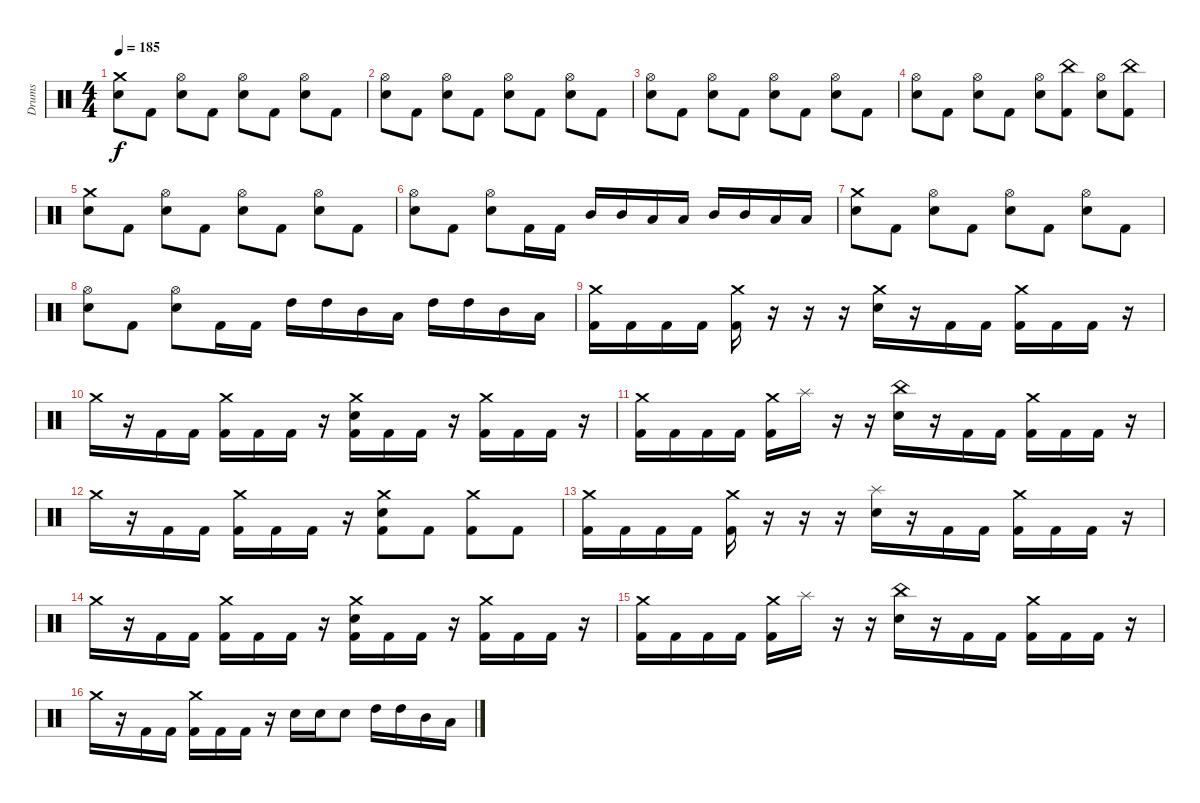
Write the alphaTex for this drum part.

\track ("Drums" "Drums") {instrument percussion}
\staff {score}
\articulation defaults
\ts (4 4)
\tempo 185
\clef neutral
\ks c
("Crash medium (hit)" "Snare (hit) 2").8{dy f} "Kick (hit) 2".8 ("Snare (hit) 2" "Hi-Hat (open)").8 "Kick (hit) 2".8 ("Snare (hit) 2" "Hi-Hat (open)").8 "Kick (hit) 2".8 ("Snare (hit) 2" "Hi-Hat (open)").8 "Kick (hit) 2".8 |
("Snare (hit) 2" "Hi-Hat (open)").8 "Kick (hit) 2".8 ("Snare (hit) 2" "Hi-Hat (open)").8 "Kick (hit) 2".8 ("Snare (hit) 2" "Hi-Hat (open)").8 "Kick (hit) 2".8 ("Snare (hit) 2" "Hi-Hat (open)").8 "Kick (hit) 2".8 |
("Snare (hit) 2" "Hi-Hat (open)").8 "Kick (hit) 2".8 ("Snare (hit) 2" "Hi-Hat (open)").8 "Kick (hit) 2".8 ("Snare (hit) 2" "Hi-Hat (open)").8 "Kick (hit) 2".8 ("Snare (hit) 2" "Hi-Hat (open)").8 "Kick (hit) 2".8 |
("Snare (hit) 2" "Hi-Hat (open)").8 "Kick (hit) 2".8 ("Snare (hit) 2" "Hi-Hat (open)").8 "Kick (hit) 2".8 ("Snare (hit) 2" "Hi-Hat (open)").8 ("China (hit)" "Kick (hit) 2").8 ("Snare (hit) 2" "Hi-Hat (open)").8 ("China (hit)" "Kick (hit) 2").8 |
("Crash medium (hit)" "Snare (hit) 2").8 "Kick (hit) 2".8 ("Snare (hit) 2" "Hi-Hat (open)").8 "Kick (hit) 2".8 ("Snare (hit) 2" "Hi-Hat (open)").8 "Kick (hit) 2".8 ("Snare (hit) 2" "Hi-Hat (open)").8 "Kick (hit) 2".8 |
("Snare (hit) 2" "Hi-Hat (open)").8 "Kick (hit) 2".8 ("Snare (hit) 2" "Hi-Hat (open)").8 "Kick (hit) 2".16 "Kick (hit) 2".16 "Mid Tom (hit)".16 "Mid Tom (hit)".16 "Low Tom (hit)".16 "Low Tom (hit)".16 "Mid Tom (hit)".16 "Mid Tom (hit)".16 "Low Tom (hit)".16 "Low Tom (hit)".16 |
("Crash medium (hit)" "Snare (hit) 2").8 "Kick (hit) 2".8 ("Snare (hit) 2" "Hi-Hat (open)").8 "Kick (hit) 2".8 ("Snare (hit) 2" "Hi-Hat (open)").8 "Kick (hit) 2".8 ("Snare (hit) 2" "Hi-Hat (open)").8 "Kick (hit) 2".8 |
("Snare (hit) 2" "Hi-Hat (open)").8 "Kick (hit) 2".8 ("Snare (hit) 2" "Hi-Hat (open)").8 "Kick (hit) 2".16 "Kick (hit) 2".16 "High Tom (hit)".16 "High Tom (hit)".16 "Mid Tom (hit)".16 "Low Tom (hit)".16 "High Tom (hit)".16 "High Tom (hit)".16 "Mid Tom (hit)".16 "Low Tom (hit)".16 |
("Crash medium (hit)" "Kick (hit) 2").16 "Kick (hit) 2".16 "Kick (hit) 2".16 "Kick (hit) 2".16 ("Crash medium (hit)" "Kick (hit) 2").16 r.16 r.16 r.16 ("Crash medium (hit)" "Snare (hit) 2").16 r.16 "Kick (hit) 2".16 "Kick (hit) 2".16 ("Crash medium (hit)" "Kick (hit) 2").16 "Kick (hit) 2".16 "Kick (hit) 2".16 r.16 |
"Crash medium (hit)".16 r.16 "Kick (hit) 2".16 "Kick (hit) 2".16 ("Crash medium (hit)" "Kick (hit) 2").16 "Kick (hit) 2".16 "Kick (hit) 2".16 r.16 ("Crash medium (hit)" "Snare (hit) 2" "Kick (hit) 2").16 "Kick (hit) 2".16 "Kick (hit) 2".16 r.16 ("Crash medium (hit)" "Kick (hit) 2").16 "Kick (hit) 2".16 "Kick (hit) 2".16 r.16 |
("Crash medium (hit)" "Kick (hit) 2").16 "Kick (hit) 2".16 "Kick (hit) 2".16 "Kick (hit) 2".16 ("Crash medium (hit)" "Kick (hit) 2").16 "Splash (hit)".16 r.16 r.16 ("China (hit)" "Snare (hit) 2").16 r.16 "Kick (hit) 2".16 "Kick (hit) 2".16 ("Crash medium (hit)" "Kick (hit) 2").16 "Kick (hit) 2".16 "Kick (hit) 2".16 r.16 |
"Crash medium (hit)".16 r.16 "Kick (hit) 2".16 "Kick (hit) 2".16 ("Crash medium (hit)" "Kick (hit) 2").16 "Kick (hit) 2".16 "Kick (hit) 2".16 r.16 ("Crash medium (hit)" "Snare (hit) 2" "Kick (hit) 2").8 "Kick (hit) 2".8 ("Crash medium (hit)" "Kick (hit) 2").8 "Kick (hit) 2".8 |
("Crash medium (hit)" "Kick (hit) 2").16 "Kick (hit) 2".16 "Kick (hit) 2".16 "Kick (hit) 2".16 ("Crash medium (hit)" "Kick (hit) 2").16 r.16 r.16 r.16 ("Splash (hit)" "Snare (hit) 2").16 r.16 "Kick (hit) 2".16 "Kick (hit) 2".16 ("Crash medium (hit)" "Kick (hit) 2").16 "Kick (hit) 2".16 "Kick (hit) 2".16 r.16 |
"Crash medium (hit)".16 r.16 "Kick (hit) 2".16 "Kick (hit) 2".16 ("Crash medium (hit)" "Kick (hit) 2").16 "Kick (hit) 2".16 "Kick (hit) 2".16 r.16 ("Crash medium (hit)" "Snare (hit) 2" "Kick (hit) 2").16 "Kick (hit) 2".16 "Kick (hit) 2".16 r.16 ("Crash medium (hit)" "Kick (hit) 2").16 "Kick (hit) 2".16 "Kick (hit) 2".16 r.16 |
("Crash medium (hit)" "Kick (hit) 2").16 "Kick (hit) 2".16 "Kick (hit) 2".16 "Kick (hit) 2".16 ("Crash medium (hit)" "Kick (hit) 2").16 "Splash (hit)".16 r.16 r.16 ("China (hit)" "Snare (hit) 2").16 r.16 "Kick (hit) 2".16 "Kick (hit) 2".16 ("Crash medium (hit)" "Kick (hit) 2").16 "Kick (hit) 2".16 "Kick (hit) 2".16 r.16 |
"Crash medium (hit)".16 r.16 "Kick (hit) 2".16 "Kick (hit) 2".16 ("Crash medium (hit)" "Kick (hit) 2").16 "Kick (hit) 2".16 "Kick (hit) 2".16 r.16 "Snare (hit) 2".16 "Snare (hit) 2".16 "Snare (hit) 2".8 "High Tom (hit)".16 "High Tom (hit)".16 "Mid Tom (hit)".16 "Low Tom (hit)".16
